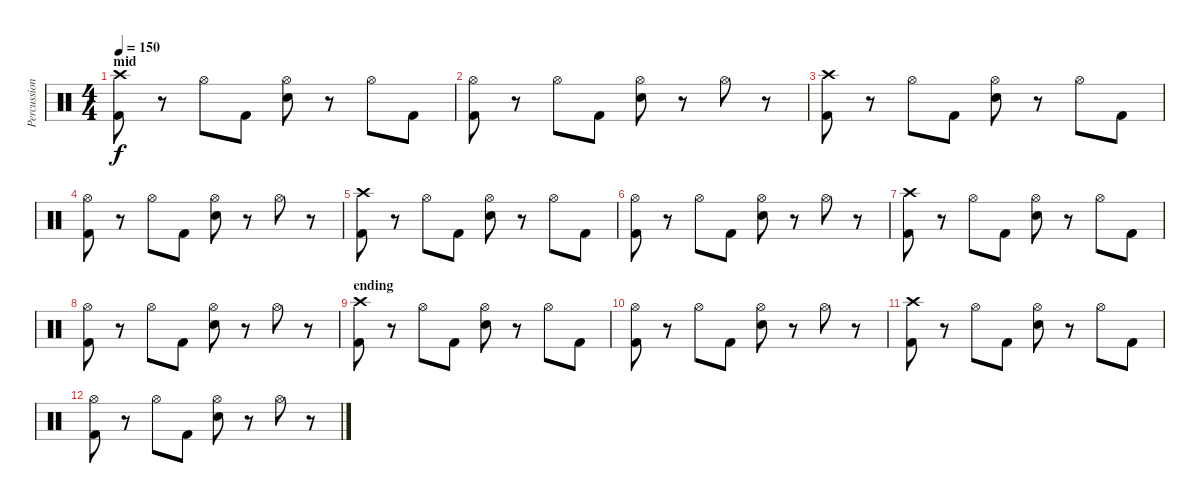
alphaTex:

\track ("Percussion" "Percussion") {instrument percussion}
\staff {score}
\articulation defaults
\ts (4 4)
\section ("" "mid")
\tempo 150
\clef neutral
\ks c
("Crash high (hit)" "Kick (hit) 2").8{dy f} r.8 "Hi-Hat (open)".8 "Kick (hit) 2".8 ("Hi-Hat (open)" "Electric Snare (hit)").8 r.8 "Hi-Hat (open)".8 "Kick (hit) 2".8 |
("Hi-Hat (open)" "Kick (hit) 2").8 r.8 "Hi-Hat (open)".8 "Kick (hit) 2".8 ("Hi-Hat (open)" "Electric Snare (hit)").8 r.8 "Hi-Hat (open)".8 r.8 |
("Crash high (hit)" "Kick (hit) 2").8 r.8 "Hi-Hat (open)".8 "Kick (hit) 2".8 ("Hi-Hat (open)" "Electric Snare (hit)").8 r.8 "Hi-Hat (open)".8 "Kick (hit) 2".8 |
("Hi-Hat (open)" "Kick (hit) 2").8 r.8 "Hi-Hat (open)".8 "Kick (hit) 2".8 ("Hi-Hat (open)" "Electric Snare (hit)").8 r.8 "Hi-Hat (open)".8 r.8 |
("Crash high (hit)" "Kick (hit) 2").8 r.8 "Hi-Hat (open)".8 "Kick (hit) 2".8 ("Hi-Hat (open)" "Electric Snare (hit)").8 r.8 "Hi-Hat (open)".8 "Kick (hit) 2".8 |
("Hi-Hat (open)" "Kick (hit) 2").8 r.8 "Hi-Hat (open)".8 "Kick (hit) 2".8 ("Hi-Hat (open)" "Electric Snare (hit)").8 r.8 "Hi-Hat (open)".8 r.8 |
("Crash high (hit)" "Kick (hit) 2").8 r.8 "Hi-Hat (open)".8 "Kick (hit) 2".8 ("Hi-Hat (open)" "Electric Snare (hit)").8 r.8 "Hi-Hat (open)".8 "Kick (hit) 2".8 |
("Hi-Hat (open)" "Kick (hit) 2").8 r.8 "Hi-Hat (open)".8 "Kick (hit) 2".8 ("Hi-Hat (open)" "Electric Snare (hit)").8 r.8 "Hi-Hat (open)".8 r.8 |
\section ("" "ending")
("Crash high (hit)" "Kick (hit) 2").8 r.8 "Hi-Hat (open)".8 "Kick (hit) 2".8 ("Hi-Hat (open)" "Electric Snare (hit)").8 r.8 "Hi-Hat (open)".8 "Kick (hit) 2".8 |
("Hi-Hat (open)" "Kick (hit) 2").8 r.8 "Hi-Hat (open)".8 "Kick (hit) 2".8 ("Hi-Hat (open)" "Electric Snare (hit)").8 r.8 "Hi-Hat (open)".8 r.8 |
("Crash high (hit)" "Kick (hit) 2").8 r.8 "Hi-Hat (open)".8 "Kick (hit) 2".8 ("Hi-Hat (open)" "Electric Snare (hit)").8 r.8 "Hi-Hat (open)".8 "Kick (hit) 2".8 |
("Hi-Hat (open)" "Kick (hit) 2").8 r.8 "Hi-Hat (open)".8 "Kick (hit) 2".8 ("Hi-Hat (open)" "Electric Snare (hit)").8 r.8 "Hi-Hat (open)".8 r.8
